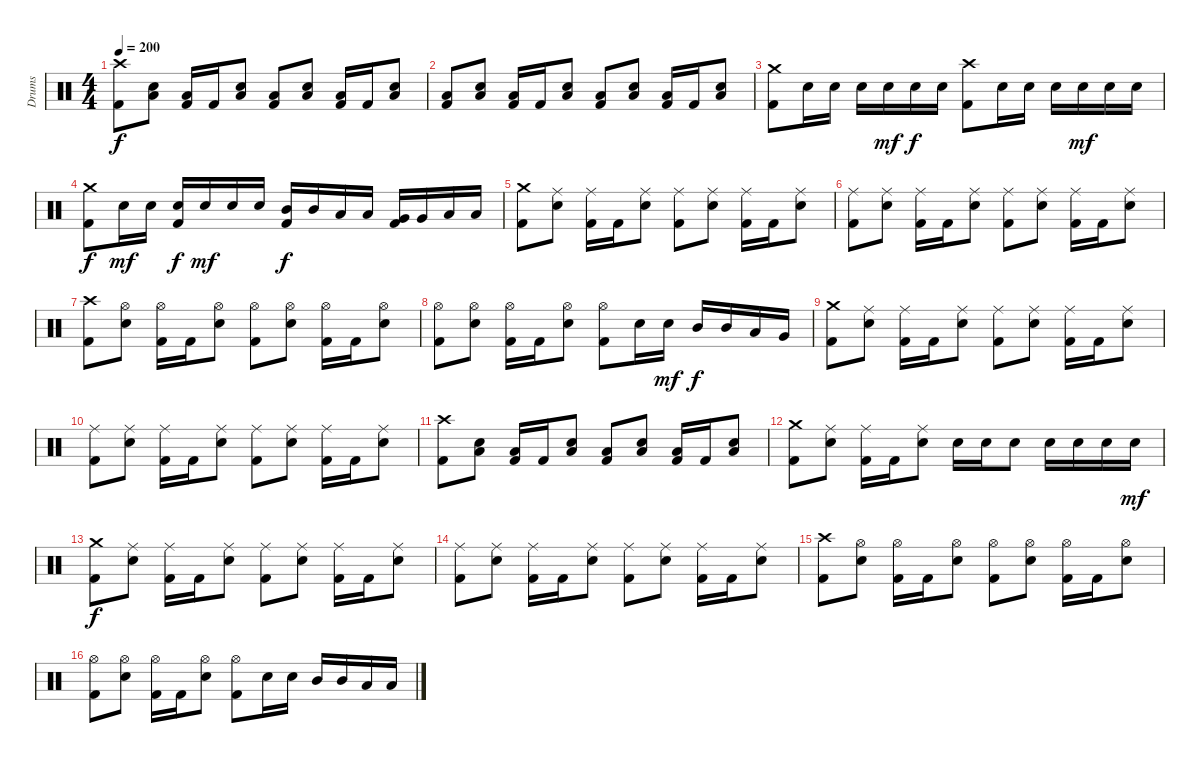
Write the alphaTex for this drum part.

\track ("Drums" "Drums") {instrument percussion}
\staff {score}
\articulation defaults
\ts (4 4)
\tempo 200
\clef neutral
\ks c
("Crash high (hit)" "Kick (hit) 2").8{dy f} ("Low Floor Tom (hit)" "Electric Snare (hit)").8 ("Low Floor Tom (hit)" "Kick (hit) 2").16 "Kick (hit) 2".16 ("Low Floor Tom (hit)" "Electric Snare (hit)").8 ("Low Floor Tom (hit)" "Kick (hit) 2").8 ("Low Floor Tom (hit)" "Electric Snare (hit)").8 ("Low Floor Tom (hit)" "Kick (hit) 2").16 "Kick (hit) 2".16 ("Low Floor Tom (hit)" "Electric Snare (hit)").8 |
("Low Floor Tom (hit)" "Kick (hit) 2").8 ("Low Floor Tom (hit)" "Electric Snare (hit)").8 ("Low Floor Tom (hit)" "Kick (hit) 2").16 "Kick (hit) 2".16 ("Low Floor Tom (hit)" "Electric Snare (hit)").8 ("Low Floor Tom (hit)" "Kick (hit) 2").8 ("Low Floor Tom (hit)" "Electric Snare (hit)").8 ("Low Floor Tom (hit)" "Kick (hit) 2").16 "Kick (hit) 2".16 ("Low Floor Tom (hit)" "Electric Snare (hit)").8 |
("Crash medium (hit)" "Kick (hit) 2").8 "Electric Snare (hit)".16 "Electric Snare (hit)".16 "Electric Snare (hit)".16 "Electric Snare (hit)".16{dy mf} "Electric Snare (hit)".16{dy f} "Electric Snare (hit)".16 ("Crash high (hit)" "Kick (hit) 2").8 "Electric Snare (hit)".16 "Electric Snare (hit)".16 "Electric Snare (hit)".16 "Electric Snare (hit)".16{dy mf} "Electric Snare (hit)".16 "Electric Snare (hit)".16 |
("Crash medium (hit)" "Kick (hit) 2").8{dy f} "Electric Snare (hit)".16{dy mf} "Electric Snare (hit)".16 ("Electric Snare (hit)" "Kick (hit) 2").16{dy f} "Electric Snare (hit)".16{dy mf} "Electric Snare (hit)".16 "Electric Snare (hit)".16 ("Mid Tom (hit)" "Kick (hit) 2").16{dy f} "Mid Tom (hit)".16 "Low Tom (hit)".16 "Low Tom (hit)".16 ("Very Low Tom (hit)" "Kick (hit) 2").16 "Very Low Tom (hit)".16 "Low Floor Tom (hit)".16 "Low Floor Tom (hit)".16 |
("Crash medium (hit)" "Kick (hit) 2").8 ("Ride (middle)" "Electric Snare (hit)").8 ("Ride (middle)" "Kick (hit) 2").16 "Kick (hit) 2".16 ("Ride (middle)" "Electric Snare (hit)").8 ("Ride (middle)" "Kick (hit) 2").8 ("Ride (middle)" "Electric Snare (hit)").8 ("Ride (middle)" "Kick (hit) 2").16 "Kick (hit) 2".16 ("Ride (middle)" "Electric Snare (hit)").8 |
("Ride (middle)" "Kick (hit) 2").8 ("Ride (middle)" "Electric Snare (hit)").8 ("Ride (middle)" "Kick (hit) 2").16 "Kick (hit) 2".16 ("Ride (middle)" "Electric Snare (hit)").8 ("Ride (middle)" "Kick (hit) 2").8 ("Ride (middle)" "Electric Snare (hit)").8 ("Ride (middle)" "Kick (hit) 2").16 "Kick (hit) 2".16 ("Ride (middle)" "Electric Snare (hit)").8 |
("Crash high (hit)" "Kick (hit) 2").8 ("Hi-Hat (open)" "Electric Snare (hit)").8 ("Hi-Hat (open)" "Kick (hit) 2").16 "Kick (hit) 2".16 ("Hi-Hat (open)" "Electric Snare (hit)").8 ("Hi-Hat (open)" "Kick (hit) 2").8 ("Hi-Hat (open)" "Electric Snare (hit)").8 ("Hi-Hat (open)" "Kick (hit) 2").16 "Kick (hit) 2".16 ("Hi-Hat (open)" "Electric Snare (hit)").8 |
("Hi-Hat (open)" "Kick (hit) 2").8 ("Hi-Hat (open)" "Electric Snare (hit)").8 ("Hi-Hat (open)" "Kick (hit) 2").16 "Kick (hit) 2".16 ("Hi-Hat (open)" "Electric Snare (hit)").8 ("Hi-Hat (open)" "Kick (hit) 2").8 "Electric Snare (hit)".16 "Electric Snare (hit)".16{dy mf} "Mid Tom (hit)".16{dy f} "Mid Tom (hit)".16 "Low Tom (hit)".16 "Very Low Tom (hit)".16 |
("Crash medium (hit)" "Kick (hit) 2").8 ("Ride (middle)" "Electric Snare (hit)").8 ("Ride (middle)" "Kick (hit) 2").16 "Kick (hit) 2".16 ("Ride (middle)" "Electric Snare (hit)").8 ("Ride (middle)" "Kick (hit) 2").8 ("Ride (middle)" "Electric Snare (hit)").8 ("Ride (middle)" "Kick (hit) 2").16 "Kick (hit) 2".16 ("Ride (middle)" "Electric Snare (hit)").8 |
("Ride (middle)" "Kick (hit) 2").8 ("Ride (middle)" "Electric Snare (hit)").8 ("Ride (middle)" "Kick (hit) 2").16 "Kick (hit) 2".16 ("Ride (middle)" "Electric Snare (hit)").8 ("Ride (middle)" "Kick (hit) 2").8 ("Ride (middle)" "Electric Snare (hit)").8 ("Ride (middle)" "Kick (hit) 2").16 "Kick (hit) 2".16 ("Ride (middle)" "Electric Snare (hit)").8 |
("Crash high (hit)" "Kick (hit) 2").8 ("Low Floor Tom (hit)" "Electric Snare (hit)").8 ("Low Floor Tom (hit)" "Kick (hit) 2").16 "Kick (hit) 2".16 ("Low Floor Tom (hit)" "Electric Snare (hit)").8 ("Low Floor Tom (hit)" "Kick (hit) 2").8 ("Low Floor Tom (hit)" "Electric Snare (hit)").8 ("Low Floor Tom (hit)" "Kick (hit) 2").16 "Kick (hit) 2".16 ("Low Floor Tom (hit)" "Electric Snare (hit)").8 |
("Crash medium (hit)" "Kick (hit) 2").8 ("Ride (middle)" "Electric Snare (hit)").8 ("Ride (middle)" "Kick (hit) 2").16 "Kick (hit) 2".16 ("Ride (middle)" "Electric Snare (hit)").8 "Electric Snare (hit)".16 "Electric Snare (hit)".16 "Electric Snare (hit)".8 "Electric Snare (hit)".16 "Electric Snare (hit)".16 "Electric Snare (hit)".16 "Electric Snare (hit)".16{dy mf} |
("Crash medium (hit)" "Kick (hit) 2").8{dy f} ("Ride (middle)" "Electric Snare (hit)").8 ("Ride (middle)" "Kick (hit) 2").16 "Kick (hit) 2".16 ("Ride (middle)" "Electric Snare (hit)").8 ("Ride (middle)" "Kick (hit) 2").8 ("Ride (middle)" "Electric Snare (hit)").8 ("Ride (middle)" "Kick (hit) 2").16 "Kick (hit) 2".16 ("Ride (middle)" "Electric Snare (hit)").8 |
("Ride (middle)" "Kick (hit) 2").8 ("Ride (middle)" "Electric Snare (hit)").8 ("Ride (middle)" "Kick (hit) 2").16 "Kick (hit) 2".16 ("Ride (middle)" "Electric Snare (hit)").8 ("Ride (middle)" "Kick (hit) 2").8 ("Ride (middle)" "Electric Snare (hit)").8 ("Ride (middle)" "Kick (hit) 2").16 "Kick (hit) 2".16 ("Ride (middle)" "Electric Snare (hit)").8 |
("Crash high (hit)" "Kick (hit) 2").8 ("Hi-Hat (open)" "Electric Snare (hit)").8 ("Hi-Hat (open)" "Kick (hit) 2").16 "Kick (hit) 2".16 ("Hi-Hat (open)" "Electric Snare (hit)").8 ("Hi-Hat (open)" "Kick (hit) 2").8 ("Hi-Hat (open)" "Electric Snare (hit)").8 ("Hi-Hat (open)" "Kick (hit) 2").16 "Kick (hit) 2".16 ("Hi-Hat (open)" "Electric Snare (hit)").8 |
("Hi-Hat (open)" "Kick (hit) 2").8 ("Hi-Hat (open)" "Electric Snare (hit)").8 ("Hi-Hat (open)" "Kick (hit) 2").16 "Kick (hit) 2".16 ("Hi-Hat (open)" "Electric Snare (hit)").8 ("Hi-Hat (open)" "Kick (hit) 2").8 "Electric Snare (hit)".16 "Electric Snare (hit)".16 "Mid Tom (hit)".16 "Mid Tom (hit)".16 "Low Tom (hit)".16 "Low Tom (hit)".16
